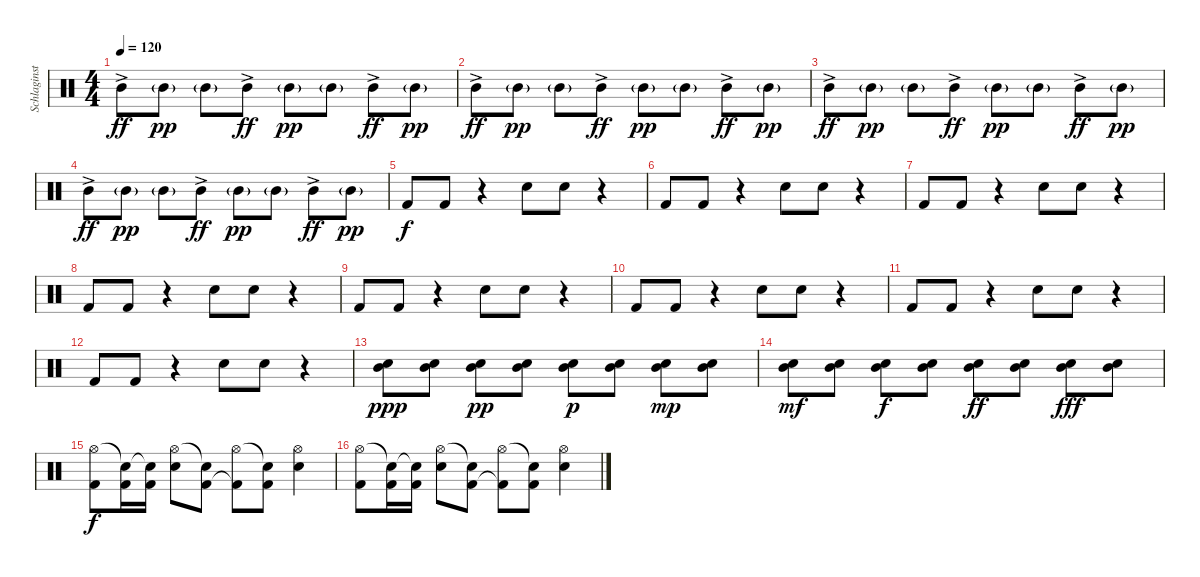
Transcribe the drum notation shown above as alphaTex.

\track ("Schlaginstrumente - Auswahl" "Schlaginst") {instrument percussion}
\staff {score}
\articulation defaults
\ts (4 4)
\tempo 120
\clef neutral
\ks c "Mid Tom (hit)"{ac}.8{dy ff} "Mid Tom (hit)"{g}.8{dy pp} "Mid Tom (hit)"{g}.8 "Mid Tom (hit)"{ac}.8{dy ff} "Mid Tom (hit)"{g}.8{dy pp} "Mid Tom (hit)"{g}.8 "Mid Tom (hit)"{ac}.8{dy ff} "Mid Tom (hit)"{g}.8{dy pp}
|
"Mid Tom (hit)"{ac}.8{dy ff} "Mid Tom (hit)"{g}.8{dy pp} "Mid Tom (hit)"{g}.8 "Mid Tom (hit)"{ac}.8{dy ff} "Mid Tom (hit)"{g}.8{dy pp} "Mid Tom (hit)"{g}.8 "Mid Tom (hit)"{ac}.8{dy ff} "Mid Tom (hit)"{g}.8{dy pp} |
"Mid Tom (hit)"{ac}.8{dy ff} "Mid Tom (hit)"{g}.8{dy pp} "Mid Tom (hit)"{g}.8 "Mid Tom (hit)"{ac}.8{dy ff} "Mid Tom (hit)"{g}.8{dy pp} "Mid Tom (hit)"{g}.8 "Mid Tom (hit)"{ac}.8{dy ff} "Mid Tom (hit)"{g}.8{dy pp} |
"Mid Tom (hit)"{ac}.8{dy ff} "Mid Tom (hit)"{g}.8{dy pp} "Mid Tom (hit)"{g}.8 "Mid Tom (hit)"{ac}.8{dy ff} "Mid Tom (hit)"{g}.8{dy pp} "Mid Tom (hit)"{g}.8 "Mid Tom (hit)"{ac}.8{dy ff} "Mid Tom (hit)"{g}.8{dy pp} |
"Kick (hit) 2".8{dy f} "Kick (hit) 2".8 r.4 "Snare (hit) 2".8 "Snare (hit) 2".8 r.4 |
"Kick (hit) 2".8 "Kick (hit) 2".8 r.4 "Snare (hit) 2".8 "Snare (hit) 2".8 r.4 |
"Kick (hit) 2".8 "Kick (hit) 2".8 r.4 "Snare (hit) 2".8 "Snare (hit) 2".8 r.4 |
"Kick (hit) 2".8 "Kick (hit) 2".8 r.4 "Snare (hit) 2".8 "Snare (hit) 2".8 r.4 |
"Kick (hit) 2".8 "Kick (hit) 2".8 r.4 "Snare (hit) 2".8 "Snare (hit) 2".8 r.4 |
"Kick (hit) 2".8 "Kick (hit) 2".8 r.4 "Snare (hit) 2".8 "Snare (hit) 2".8 r.4 |
"Kick (hit) 2".8 "Kick (hit) 2".8 r.4 "Snare (hit) 2".8 "Snare (hit) 2".8 r.4 |
"Kick (hit) 2".8 "Kick (hit) 2".8 r.4 "Snare (hit) 2".8 "Snare (hit) 2".8 r.4 |
("Mid Tom (hit)" "Snare (hit) 2").8{dy ppp} ("Mid Tom (hit)" "Snare (hit) 2").8 ("Mid Tom (hit)" "Snare (hit) 2").8{dy pp} ("Mid Tom (hit)" "Snare (hit) 2").8 ("Mid Tom (hit)" "Snare (hit) 2").8{dy p} ("Mid Tom (hit)" "Snare (hit) 2").8 ("Mid Tom (hit)" "Snare (hit) 2").8{dy mp} ("Mid Tom (hit)" "Snare (hit) 2").8 |
("Mid Tom (hit)" "Snare (hit) 2").8{dy mf} ("Mid Tom (hit)" "Snare (hit) 2").8 ("Mid Tom (hit)" "Snare (hit) 2").8{dy f} ("Mid Tom (hit)" "Snare (hit) 2").8 ("Mid Tom (hit)" "Snare (hit) 2").8{dy ff} ("Mid Tom (hit)" "Snare (hit) 2").8 ("Mid Tom (hit)" "Snare (hit) 2").8{dy fff} ("Mid Tom (hit)" "Snare (hit) 2").8 |
("Hi-Hat (open)" "Kick (hit) 2").8{dy f} ("Snare (hit)"{t} "Kick (hit) 2").16 ("Snare (hit)"{t} "Kick (hit) 2").16 ("Hi-Hat (open)" "Snare (hit) 2").8 ("Snare (hit)"{t} "Kick (hit) 2").8 ("Hi-Hat (open)" "Kick (hit) 2"{t}).8 ("Snare (hit)"{t} "Kick (hit) 2").8 ("Hi-Hat (open)" "Snare (hit) 2").4 |
("Hi-Hat (open)" "Kick (hit) 2").8 ("Snare (hit)"{t} "Kick (hit) 2").16 ("Snare (hit)"{t} "Kick (hit) 2").16 ("Hi-Hat (open)" "Snare (hit) 2").8 ("Snare (hit)"{t} "Kick (hit) 2").8 ("Hi-Hat (open)" "Kick (hit) 2"{t}).8 ("Snare (hit)"{t} "Kick (hit) 2").8 ("Hi-Hat (open)" "Snare (hit) 2").4
